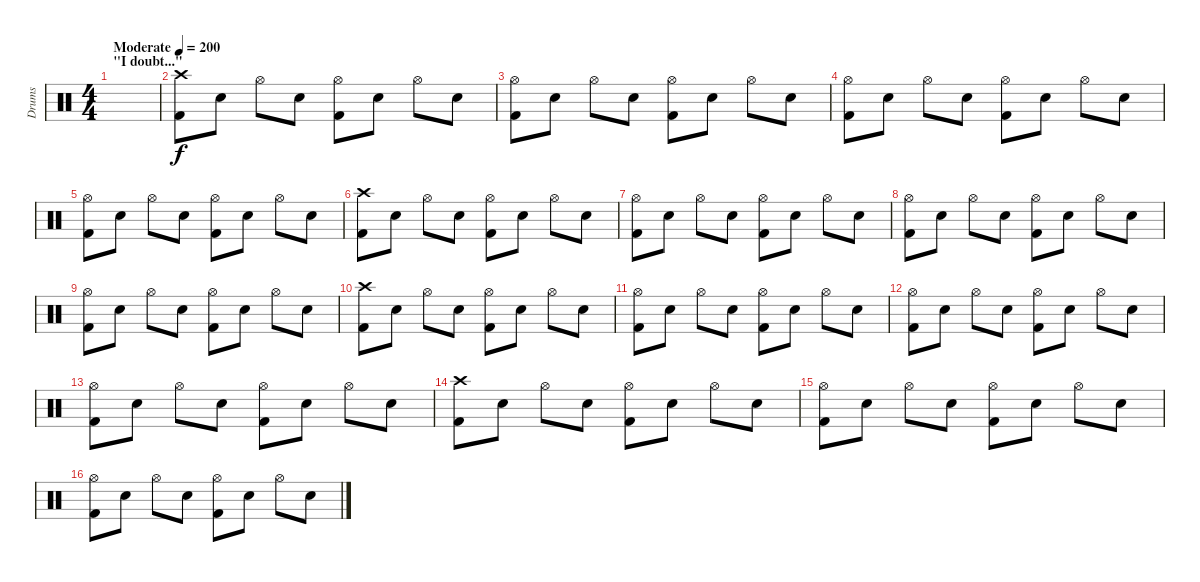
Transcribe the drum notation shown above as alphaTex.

\track ("Drums" "Drums") {instrument percussion}
\staff {score}
\articulation defaults
\ts (4 4)
\section ("" "\"I doubt...\"")
\tempo (200 "Moderate")
\clef neutral
\ks c
|
("Crash high (hit)" "Kick (hit) 2").8 "Electric Snare (hit)".8 "Hi-Hat (open)".8 "Electric Snare (hit)".8 ("Hi-Hat (open)" "Kick (hit) 2").8 "Electric Snare (hit)".8 "Hi-Hat (open)".8 "Electric Snare (hit)".8 |
("Hi-Hat (open)" "Kick (hit) 2").8 "Electric Snare (hit)".8 "Hi-Hat (open)".8 "Electric Snare (hit)".8 ("Hi-Hat (open)" "Kick (hit) 2").8 "Electric Snare (hit)".8 "Hi-Hat (open)".8 "Electric Snare (hit)".8 |
("Hi-Hat (open)" "Kick (hit) 2").8 "Electric Snare (hit)".8 "Hi-Hat (open)".8 "Electric Snare (hit)".8 ("Hi-Hat (open)" "Kick (hit) 2").8 "Electric Snare (hit)".8 "Hi-Hat (open)".8 "Electric Snare (hit)".8 |
("Hi-Hat (open)" "Kick (hit) 2").8 "Electric Snare (hit)".8 "Hi-Hat (open)".8 "Electric Snare (hit)".8 ("Hi-Hat (open)" "Kick (hit) 2").8 "Electric Snare (hit)".8 "Hi-Hat (open)".8 "Electric Snare (hit)".8 |
("Crash high (hit)" "Kick (hit) 2").8 "Electric Snare (hit)".8 "Hi-Hat (open)".8 "Electric Snare (hit)".8 ("Hi-Hat (open)" "Kick (hit) 2").8 "Electric Snare (hit)".8 "Hi-Hat (open)".8 "Electric Snare (hit)".8 |
("Hi-Hat (open)" "Kick (hit) 2").8 "Electric Snare (hit)".8 "Hi-Hat (open)".8 "Electric Snare (hit)".8 ("Hi-Hat (open)" "Kick (hit) 2").8 "Electric Snare (hit)".8 "Hi-Hat (open)".8 "Electric Snare (hit)".8 |
("Hi-Hat (open)" "Kick (hit) 2").8 "Electric Snare (hit)".8 "Hi-Hat (open)".8 "Electric Snare (hit)".8 ("Hi-Hat (open)" "Kick (hit) 2").8 "Electric Snare (hit)".8 "Hi-Hat (open)".8 "Electric Snare (hit)".8 |
("Hi-Hat (open)" "Kick (hit) 2").8 "Electric Snare (hit)".8 "Hi-Hat (open)".8 "Electric Snare (hit)".8 ("Hi-Hat (open)" "Kick (hit) 2").8 "Electric Snare (hit)".8 "Hi-Hat (open)".8 "Electric Snare (hit)".8 |
("Crash high (hit)" "Kick (hit) 2").8 "Electric Snare (hit)".8 "Hi-Hat (open)".8 "Electric Snare (hit)".8 ("Hi-Hat (open)" "Kick (hit) 2").8 "Electric Snare (hit)".8 "Hi-Hat (open)".8 "Electric Snare (hit)".8 |
("Hi-Hat (open)" "Kick (hit) 2").8 "Electric Snare (hit)".8 "Hi-Hat (open)".8 "Electric Snare (hit)".8 ("Hi-Hat (open)" "Kick (hit) 2").8 "Electric Snare (hit)".8 "Hi-Hat (open)".8 "Electric Snare (hit)".8 |
("Hi-Hat (open)" "Kick (hit) 2").8 "Electric Snare (hit)".8 "Hi-Hat (open)".8 "Electric Snare (hit)".8 ("Hi-Hat (open)" "Kick (hit) 2").8 "Electric Snare (hit)".8 "Hi-Hat (open)".8 "Electric Snare (hit)".8 |
("Hi-Hat (open)" "Kick (hit) 2").8 "Electric Snare (hit)".8 "Hi-Hat (open)".8 "Electric Snare (hit)".8 ("Hi-Hat (open)" "Kick (hit) 2").8 "Electric Snare (hit)".8 "Hi-Hat (open)".8 "Electric Snare (hit)".8 |
("Crash high (hit)" "Kick (hit) 2").8 "Electric Snare (hit)".8 "Hi-Hat (open)".8 "Electric Snare (hit)".8 ("Hi-Hat (open)" "Kick (hit) 2").8 "Electric Snare (hit)".8 "Hi-Hat (open)".8 "Electric Snare (hit)".8 |
("Hi-Hat (open)" "Kick (hit) 2").8 "Electric Snare (hit)".8 "Hi-Hat (open)".8 "Electric Snare (hit)".8 ("Hi-Hat (open)" "Kick (hit) 2").8 "Electric Snare (hit)".8 "Hi-Hat (open)".8 "Electric Snare (hit)".8 |
("Hi-Hat (open)" "Kick (hit) 2").8 "Electric Snare (hit)".8 "Hi-Hat (open)".8 "Electric Snare (hit)".8 ("Hi-Hat (open)" "Kick (hit) 2").8 "Electric Snare (hit)".8 "Hi-Hat (open)".8 "Electric Snare (hit)".8
